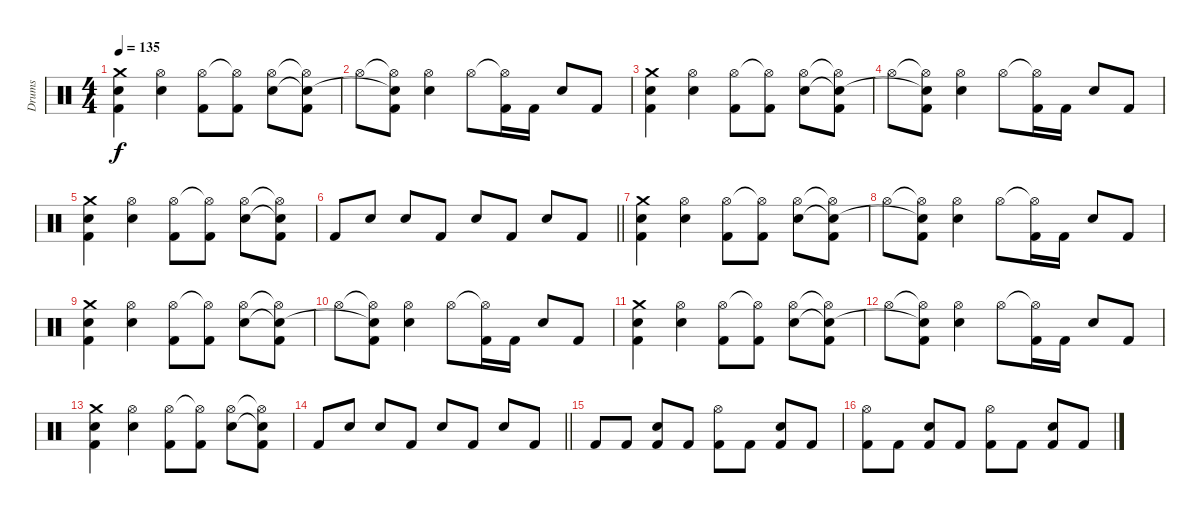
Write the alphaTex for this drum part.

\track ("Drums" "Drums") {instrument percussion}
\staff {score}
\articulation defaults
\ts (4 4)
\tempo 135
\clef neutral
\ks c
("Crash medium (hit)" "Snare (hit) 2" "Kick (hit) 2").4{dy f} ("Hi-Hat (open)" "Snare (hit) 2").4 ("Hi-Hat (open)" "Kick (hit) 2").8 ("Hi-Hat (open)"{t} "Kick (hit) 2").8 ("Hi-Hat (open)" "Snare (hit) 2").8 ("Hi-Hat (open)"{t} "Snare (hit) 2"{t} "Kick (hit) 2").8 |
"Hi-Hat (open)".8 ("Hi-Hat (open)"{t} "Snare (hit) 2"{t} "Kick (hit) 2").8 ("Hi-Hat (open)" "Snare (hit) 2").4 "Hi-Hat (open)".8 ("Hi-Hat (open)"{t} "Kick (hit) 2").16 "Kick (hit) 2".16 "Snare (hit) 2".8 "Kick (hit) 2".8 |
("Crash medium (hit)" "Snare (hit) 2" "Kick (hit) 2").4 ("Hi-Hat (open)" "Snare (hit) 2").4 ("Hi-Hat (open)" "Kick (hit) 2").8 ("Hi-Hat (open)"{t} "Kick (hit) 2").8 ("Hi-Hat (open)" "Snare (hit) 2").8 ("Hi-Hat (open)"{t} "Snare (hit) 2"{t} "Kick (hit) 2").8 |
"Hi-Hat (open)".8 ("Hi-Hat (open)"{t} "Snare (hit) 2"{t} "Kick (hit) 2").8 ("Hi-Hat (open)" "Snare (hit) 2").4 "Hi-Hat (open)".8 ("Hi-Hat (open)"{t} "Kick (hit) 2").16 "Kick (hit) 2".16 "Snare (hit) 2".8 "Kick (hit) 2".8 |
("Crash medium (hit)" "Snare (hit) 2" "Kick (hit) 2").4 ("Hi-Hat (open)" "Snare (hit) 2").4 ("Hi-Hat (open)" "Kick (hit) 2").8 ("Hi-Hat (open)"{t} "Kick (hit) 2").8 ("Hi-Hat (open)" "Snare (hit) 2").8 ("Hi-Hat (open)"{t} "Snare (hit) 2"{t} "Kick (hit) 2").8 |
\barLineRight lightlight "Kick (hit) 2".8 "Snare (hit) 2".8 "Snare (hit) 2".8 "Kick (hit) 2".8 "Snare (hit) 2".8 "Kick (hit) 2".8 "Snare (hit) 2".8 "Kick (hit) 2".8
|
("Crash medium (hit)" "Snare (hit) 2" "Kick (hit) 2").4 ("Hi-Hat (open)" "Snare (hit) 2").4 ("Hi-Hat (open)" "Kick (hit) 2").8 ("Hi-Hat (open)"{t} "Kick (hit) 2").8 ("Hi-Hat (open)" "Snare (hit) 2").8 ("Hi-Hat (open)"{t} "Snare (hit) 2"{t} "Kick (hit) 2").8 |
"Hi-Hat (open)".8 ("Hi-Hat (open)"{t} "Snare (hit) 2"{t} "Kick (hit) 2").8 ("Hi-Hat (open)" "Snare (hit) 2").4 "Hi-Hat (open)".8 ("Hi-Hat (open)"{t} "Kick (hit) 2").16 "Kick (hit) 2".16 "Snare (hit) 2".8 "Kick (hit) 2".8 |
("Crash medium (hit)" "Snare (hit) 2" "Kick (hit) 2").4 ("Hi-Hat (open)" "Snare (hit) 2").4 ("Hi-Hat (open)" "Kick (hit) 2").8 ("Hi-Hat (open)"{t} "Kick (hit) 2").8 ("Hi-Hat (open)" "Snare (hit) 2").8 ("Hi-Hat (open)"{t} "Snare (hit) 2"{t} "Kick (hit) 2").8 |
"Hi-Hat (open)".8 ("Hi-Hat (open)"{t} "Snare (hit) 2"{t} "Kick (hit) 2").8 ("Hi-Hat (open)" "Snare (hit) 2").4 "Hi-Hat (open)".8 ("Hi-Hat (open)"{t} "Kick (hit) 2").16 "Kick (hit) 2".16 "Snare (hit) 2".8 "Kick (hit) 2".8 |
("Crash medium (hit)" "Snare (hit) 2" "Kick (hit) 2").4 ("Hi-Hat (open)" "Snare (hit) 2").4 ("Hi-Hat (open)" "Kick (hit) 2").8 ("Hi-Hat (open)"{t} "Kick (hit) 2").8 ("Hi-Hat (open)" "Snare (hit) 2").8 ("Hi-Hat (open)"{t} "Snare (hit) 2"{t} "Kick (hit) 2").8 |
"Hi-Hat (open)".8 ("Hi-Hat (open)"{t} "Snare (hit) 2"{t} "Kick (hit) 2").8 ("Hi-Hat (open)" "Snare (hit) 2").4 "Hi-Hat (open)".8 ("Hi-Hat (open)"{t} "Kick (hit) 2").16 "Kick (hit) 2".16 "Snare (hit) 2".8 "Kick (hit) 2".8 |
("Crash medium (hit)" "Snare (hit) 2" "Kick (hit) 2").4 ("Hi-Hat (open)" "Snare (hit) 2").4 ("Hi-Hat (open)" "Kick (hit) 2").8 ("Hi-Hat (open)"{t} "Kick (hit) 2").8 ("Hi-Hat (open)" "Snare (hit) 2").8 ("Hi-Hat (open)"{t} "Snare (hit) 2"{t} "Kick (hit) 2").8 |
\barLineRight lightlight "Kick (hit) 2".8 "Snare (hit) 2".8 "Snare (hit) 2".8 "Kick (hit) 2".8 "Snare (hit) 2".8 "Kick (hit) 2".8 "Snare (hit) 2".8 "Kick (hit) 2".8
|
"Kick (hit) 2".8 "Kick (hit) 2".8 ("Snare (hit) 2" "Kick (hit) 2").8 "Kick (hit) 2".8 ("Hi-Hat (open)" "Kick (hit) 2").8 "Kick (hit) 2".8 ("Snare (hit) 2" "Kick (hit) 2").8 "Kick (hit) 2".8 |
("Hi-Hat (open)" "Kick (hit) 2").8 "Kick (hit) 2".8 ("Snare (hit) 2" "Kick (hit) 2").8 "Kick (hit) 2".8 ("Hi-Hat (open)" "Kick (hit) 2").8 "Kick (hit) 2".8 ("Snare (hit) 2" "Kick (hit) 2").8 "Kick (hit) 2".8
